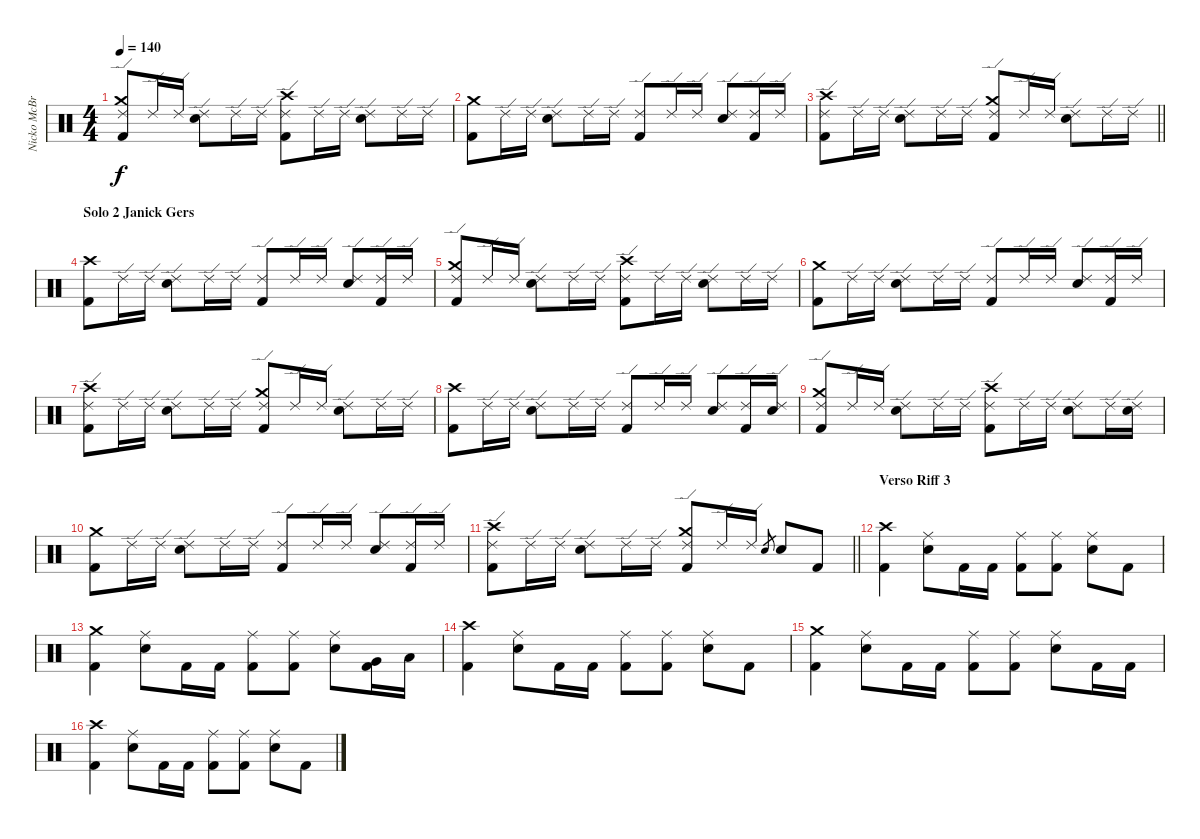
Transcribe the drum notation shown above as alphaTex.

\track ("Nicko McBrain" "Nicko McBr") {instrument percussion}
\staff {score}
\articulation defaults
\ts (4 4)
\tempo 140
\clef neutral
\ks c
("Ride (edge) 2" "Crash medium (hit)" "Kick (hit) 2").8{dy f} "Ride (edge) 2".16 "Ride (edge) 2".16 ("Ride (edge) 2" "Snare (hit) 2").8 "Ride (edge) 2".16 "Ride (edge) 2".16 ("Ride (edge) 2" "Crash high (hit)" "Kick (hit) 2").8 "Ride (edge) 2".16 "Ride (edge) 2".16 ("Ride (edge) 2" "Snare (hit) 2").8 "Ride (edge) 2".16 "Ride (edge) 2".16 |
("Crash medium (hit)" "Kick (hit) 2").8 "Ride (edge) 2".16 "Ride (edge) 2".16 ("Ride (edge) 2" "Snare (hit) 2").8 "Ride (edge) 2".16 "Ride (edge) 2".16 ("Ride (edge) 2" "Kick (hit) 2").8 "Ride (edge) 2".16 "Ride (edge) 2".16 ("Ride (edge) 2" "Snare (hit) 2").8 ("Ride (edge) 2" "Kick (hit) 2").16 "Ride (edge) 2".16 |
\barLineRight lightlight
("Ride (edge) 2" "Crash high (hit)" "Kick (hit) 2").8 "Ride (edge) 2".16 "Ride (edge) 2".16 ("Ride (edge) 2" "Snare (hit) 2").8 "Ride (edge) 2".16 "Ride (edge) 2".16 ("Ride (edge) 2" "Crash medium (hit)" "Kick (hit) 2").8 "Ride (edge) 2".16 "Ride (edge) 2".16 ("Ride (edge) 2" "Snare (hit) 2").8 "Ride (edge) 2".16 "Ride (edge) 2".16 |
\section ("" "Solo 2 Janick Gers")
("Crash high (hit)" "Kick (hit) 2").8 "Ride (edge) 2".16 "Ride (edge) 2".16 ("Ride (edge) 2" "Snare (hit) 2").8 "Ride (edge) 2".16 "Ride (edge) 2".16 ("Ride (edge) 2" "Kick (hit) 2").8 "Ride (edge) 2".16 "Ride (edge) 2".16 ("Ride (edge) 2" "Snare (hit) 2").8 ("Ride (edge) 2" "Kick (hit) 2").16 "Ride (edge) 2".16 |
("Ride (edge) 2" "Crash medium (hit)" "Kick (hit) 2").8 "Ride (edge) 2".16 "Ride (edge) 2".16 ("Ride (edge) 2" "Snare (hit) 2").8 "Ride (edge) 2".16 "Ride (edge) 2".16 ("Ride (edge) 2" "Crash high (hit)" "Kick (hit) 2").8 "Ride (edge) 2".16 "Ride (edge) 2".16 ("Ride (edge) 2" "Snare (hit) 2").8 "Ride (edge) 2".16 "Ride (edge) 2".16 |
("Crash medium (hit)" "Kick (hit) 2").8 "Ride (edge) 2".16 "Ride (edge) 2".16 ("Ride (edge) 2" "Snare (hit) 2").8 "Ride (edge) 2".16 "Ride (edge) 2".16 ("Ride (edge) 2" "Kick (hit) 2").8 "Ride (edge) 2".16 "Ride (edge) 2".16 ("Ride (edge) 2" "Snare (hit) 2").8 ("Ride (edge) 2" "Kick (hit) 2").16 "Ride (edge) 2".16 |
("Ride (edge) 2" "Crash high (hit)" "Kick (hit) 2").8 "Ride (edge) 2".16 "Ride (edge) 2".16 ("Ride (edge) 2" "Snare (hit) 2").8 "Ride (edge) 2".16 "Ride (edge) 2".16 ("Ride (edge) 2" "Crash medium (hit)" "Kick (hit) 2").8 "Ride (edge) 2".16 "Ride (edge) 2".16 ("Ride (edge) 2" "Snare (hit) 2").8 "Ride (edge) 2".16 "Ride (edge) 2".16 |
("Crash high (hit)" "Kick (hit) 2").8 "Ride (edge) 2".16 "Ride (edge) 2".16 ("Ride (edge) 2" "Snare (hit) 2").8 "Ride (edge) 2".16 "Ride (edge) 2".16 ("Ride (edge) 2" "Kick (hit) 2").8 "Ride (edge) 2".16 "Ride (edge) 2".16 ("Ride (edge) 2" "Snare (hit) 2").8 ("Ride (edge) 2" "Kick (hit) 2").16 ("Ride (edge) 2" "Snare (hit) 2").16 |
("Ride (edge) 2" "Crash medium (hit)" "Kick (hit) 2").8 "Ride (edge) 2".16 "Ride (edge) 2".16 ("Ride (edge) 2" "Snare (hit) 2").8 "Ride (edge) 2".16 "Ride (edge) 2".16 ("Ride (edge) 2" "Crash high (hit)" "Kick (hit) 2").8 "Ride (edge) 2".16 "Ride (edge) 2".16 ("Ride (edge) 2" "Snare (hit) 2").8 "Ride (edge) 2".16 ("Ride (edge) 2" "Snare (hit) 2").16 |
("Crash medium (hit)" "Kick (hit) 2").8 "Ride (edge) 2".16 "Ride (edge) 2".16 ("Ride (edge) 2" "Snare (hit) 2").8 "Ride (edge) 2".16 "Ride (edge) 2".16 ("Ride (edge) 2" "Kick (hit) 2").8 "Ride (edge) 2".16 "Ride (edge) 2".16 ("Ride (edge) 2" "Snare (hit) 2").8 ("Ride (edge) 2" "Kick (hit) 2").16 "Ride (edge) 2".16 |
\barLineRight lightlight
("Ride (edge) 2" "Crash high (hit)" "Kick (hit) 2").8 "Ride (edge) 2".16 "Ride (edge) 2".16 ("Ride (edge) 2" "Snare (hit) 2").8 "Ride (edge) 2".16 "Ride (edge) 2".16 ("Ride (edge) 2" "Crash medium (hit)" "Kick (hit) 2").8 "Ride (edge) 2".16 "Ride (edge) 2".16 "Snare (hit) 2".8{gr} "Snare (hit) 2".8 "Kick (hit) 2".8 |
\section ("" "Verso Riff 3")
("Crash high (hit)" "Kick (hit) 2").4 ("Ride (middle)" "Snare (hit) 2").8 "Kick (hit) 2".16 "Kick (hit) 2".16 ("Ride (middle)" "Kick (hit) 2").8 ("Ride (middle)" "Kick (hit) 2").8 ("Ride (middle)" "Snare (hit) 2").8 "Kick (hit) 2".8 |
("Crash medium (hit)" "Kick (hit) 2").4 ("Ride (middle)" "Snare (hit) 2").8 "Kick (hit) 2".16 "Kick (hit) 2".16 ("Ride (middle)" "Kick (hit) 2").8 ("Ride (middle)" "Kick (hit) 2").8 ("Ride (middle)" "Snare (hit) 2").8 ("Very Low Tom (hit)" "Kick (hit) 2").16 "Low Floor Tom (hit)".16 |
("Crash high (hit)" "Kick (hit) 2").4 ("Ride (middle)" "Snare (hit) 2").8 "Kick (hit) 2".16 "Kick (hit) 2".16 ("Ride (middle)" "Kick (hit) 2").8 ("Ride (middle)" "Kick (hit) 2").8 ("Ride (middle)" "Snare (hit) 2").8 "Kick (hit) 2".8 |
("Crash medium (hit)" "Kick (hit) 2").4 ("Ride (middle)" "Snare (hit) 2").8 "Kick (hit) 2".16 "Kick (hit) 2".16 ("Ride (middle)" "Kick (hit) 2").8 ("Ride (middle)" "Kick (hit) 2").8 ("Ride (middle)" "Snare (hit) 2").8 "Kick (hit) 2".16 "Kick (hit) 2".16 |
("Crash high (hit)" "Kick (hit) 2").4 ("Ride (middle)" "Snare (hit) 2").8 "Kick (hit) 2".16 "Kick (hit) 2".16 ("Ride (middle)" "Kick (hit) 2").8 ("Ride (middle)" "Kick (hit) 2").8 ("Ride (middle)" "Snare (hit) 2").8 "Kick (hit) 2".8
